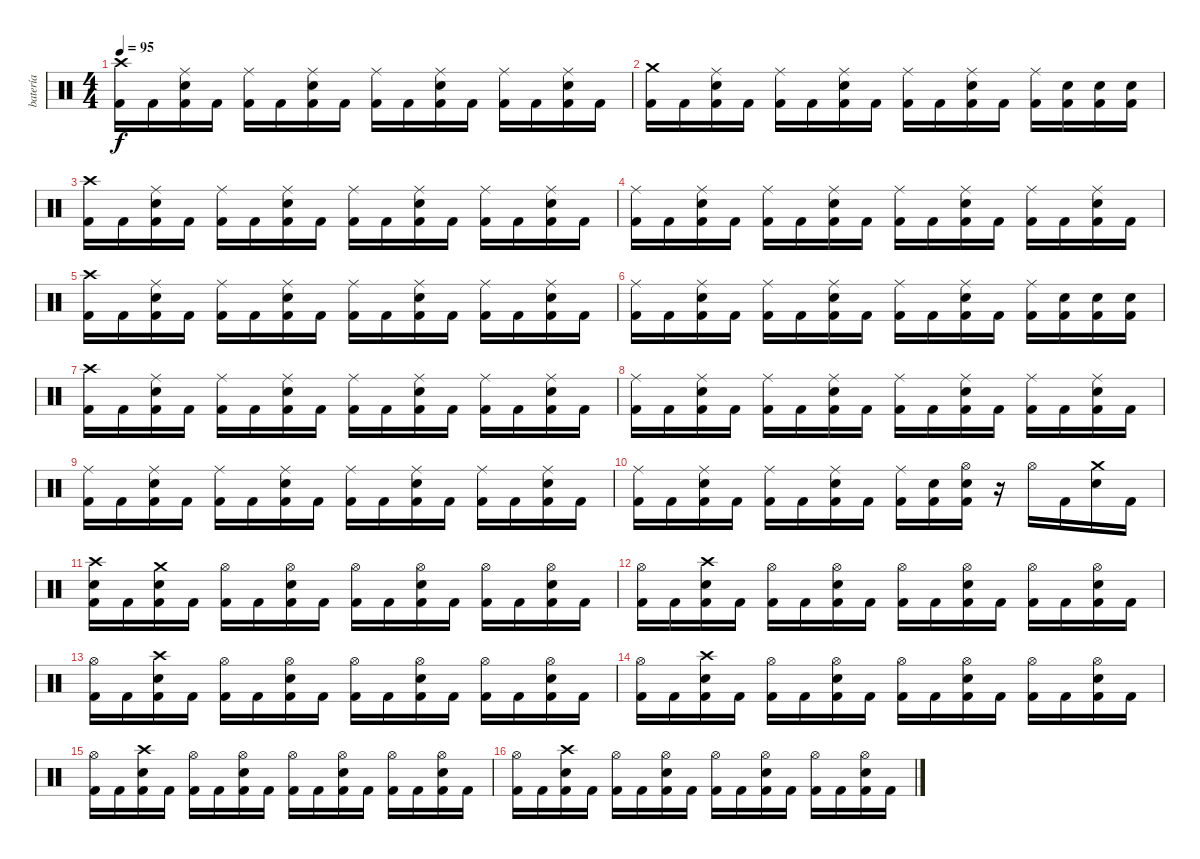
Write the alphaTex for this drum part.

\track ("batería" "batería") {instrument percussion}
\staff {score}
\articulation defaults
\ts (4 4)
\tempo 95
\clef neutral
\ks c
("Crash high (hit)" "Kick (hit) 2").16{dy f} "Kick (hit) 2".16 ("Ride (middle)" "Electric Snare (hit)" "Kick (hit) 2").16 "Kick (hit) 2".16 ("Ride (middle)" "Kick (hit) 2").16 "Kick (hit) 2".16 ("Ride (middle)" "Electric Snare (hit)" "Kick (hit) 2").16 "Kick (hit) 2".16 ("Ride (middle)" "Kick (hit) 2").16 "Kick (hit) 2".16 ("Ride (middle)" "Electric Snare (hit)" "Kick (hit) 2").16 "Kick (hit) 2".16 ("Ride (middle)" "Kick (hit) 2").16 "Kick (hit) 2".16 ("Ride (middle)" "Electric Snare (hit)" "Kick (hit) 2").16 "Kick (hit) 2".16 |
("Crash medium (hit)" "Kick (hit) 2").16 "Kick (hit) 2".16 ("Ride (middle)" "Electric Snare (hit)" "Kick (hit) 2").16 "Kick (hit) 2".16 ("Ride (middle)" "Kick (hit) 2").16 "Kick (hit) 2".16 ("Ride (middle)" "Electric Snare (hit)" "Kick (hit) 2").16 "Kick (hit) 2".16 ("Ride (middle)" "Kick (hit) 2").16 "Kick (hit) 2".16 ("Ride (middle)" "Electric Snare (hit)" "Kick (hit) 2").16 "Kick (hit) 2".16 ("Ride (middle)" "Kick (hit) 2").16 ("Electric Snare (hit)" "Kick (hit) 2").16 ("Electric Snare (hit)" "Kick (hit) 2").16 ("Electric Snare (hit)" "Kick (hit) 2").16 |
("Crash high (hit)" "Kick (hit) 2").16 "Kick (hit) 2".16 ("Ride (middle)" "Electric Snare (hit)" "Kick (hit) 2").16 "Kick (hit) 2".16 ("Ride (middle)" "Kick (hit) 2").16 "Kick (hit) 2".16 ("Ride (middle)" "Electric Snare (hit)" "Kick (hit) 2").16 "Kick (hit) 2".16 ("Ride (middle)" "Kick (hit) 2").16 "Kick (hit) 2".16 ("Ride (middle)" "Electric Snare (hit)" "Kick (hit) 2").16 "Kick (hit) 2".16 ("Ride (middle)" "Kick (hit) 2").16 "Kick (hit) 2".16 ("Ride (middle)" "Electric Snare (hit)" "Kick (hit) 2").16 "Kick (hit) 2".16 |
("Ride (middle)" "Kick (hit) 2").16 "Kick (hit) 2".16 ("Ride (middle)" "Electric Snare (hit)" "Kick (hit) 2").16 "Kick (hit) 2".16 ("Ride (middle)" "Kick (hit) 2").16 "Kick (hit) 2".16 ("Ride (middle)" "Electric Snare (hit)" "Kick (hit) 2").16 "Kick (hit) 2".16 ("Ride (middle)" "Kick (hit) 2").16 "Kick (hit) 2".16 ("Ride (middle)" "Electric Snare (hit)" "Kick (hit) 2").16 "Kick (hit) 2".16 ("Ride (middle)" "Kick (hit) 2").16 "Kick (hit) 2".16 ("Ride (middle)" "Electric Snare (hit)" "Kick (hit) 2").16 "Kick (hit) 2".16 |
("Crash high (hit)" "Kick (hit) 2").16 "Kick (hit) 2".16 ("Ride (middle)" "Electric Snare (hit)" "Kick (hit) 2").16 "Kick (hit) 2".16 ("Ride (middle)" "Kick (hit) 2").16 "Kick (hit) 2".16 ("Ride (middle)" "Electric Snare (hit)" "Kick (hit) 2").16 "Kick (hit) 2".16 ("Ride (middle)" "Kick (hit) 2").16 "Kick (hit) 2".16 ("Ride (middle)" "Electric Snare (hit)" "Kick (hit) 2").16 "Kick (hit) 2".16 ("Ride (middle)" "Kick (hit) 2").16 "Kick (hit) 2".16 ("Ride (middle)" "Electric Snare (hit)" "Kick (hit) 2").16 "Kick (hit) 2".16 |
("Ride (middle)" "Kick (hit) 2").16 "Kick (hit) 2".16 ("Ride (middle)" "Electric Snare (hit)" "Kick (hit) 2").16 "Kick (hit) 2".16 ("Ride (middle)" "Kick (hit) 2").16 "Kick (hit) 2".16 ("Ride (middle)" "Electric Snare (hit)" "Kick (hit) 2").16 "Kick (hit) 2".16 ("Ride (middle)" "Kick (hit) 2").16 "Kick (hit) 2".16 ("Ride (middle)" "Electric Snare (hit)" "Kick (hit) 2").16 "Kick (hit) 2".16 ("Ride (middle)" "Kick (hit) 2").16 ("Electric Snare (hit)" "Kick (hit) 2").16 ("Electric Snare (hit)" "Kick (hit) 2").16 ("Electric Snare (hit)" "Kick (hit) 2").16 |
("Crash high (hit)" "Kick (hit) 2").16 "Kick (hit) 2".16 ("Ride (middle)" "Electric Snare (hit)" "Kick (hit) 2").16 "Kick (hit) 2".16 ("Ride (middle)" "Kick (hit) 2").16 "Kick (hit) 2".16 ("Ride (middle)" "Electric Snare (hit)" "Kick (hit) 2").16 "Kick (hit) 2".16 ("Ride (middle)" "Kick (hit) 2").16 "Kick (hit) 2".16 ("Ride (middle)" "Electric Snare (hit)" "Kick (hit) 2").16 "Kick (hit) 2".16 ("Ride (middle)" "Kick (hit) 2").16 "Kick (hit) 2".16 ("Ride (middle)" "Electric Snare (hit)" "Kick (hit) 2").16 "Kick (hit) 2".16 |
("Ride (middle)" "Kick (hit) 2").16 "Kick (hit) 2".16 ("Ride (middle)" "Electric Snare (hit)" "Kick (hit) 2").16 "Kick (hit) 2".16 ("Ride (middle)" "Kick (hit) 2").16 "Kick (hit) 2".16 ("Ride (middle)" "Electric Snare (hit)" "Kick (hit) 2").16 "Kick (hit) 2".16 ("Ride (middle)" "Kick (hit) 2").16 "Kick (hit) 2".16 ("Ride (middle)" "Electric Snare (hit)" "Kick (hit) 2").16 "Kick (hit) 2".16 ("Ride (middle)" "Kick (hit) 2").16 "Kick (hit) 2".16 ("Ride (middle)" "Electric Snare (hit)" "Kick (hit) 2").16 "Kick (hit) 2".16 |
("Ride (middle)" "Kick (hit) 2").16 "Kick (hit) 2".16 ("Ride (middle)" "Electric Snare (hit)" "Kick (hit) 2").16 "Kick (hit) 2".16 ("Ride (middle)" "Kick (hit) 2").16 "Kick (hit) 2".16 ("Ride (middle)" "Electric Snare (hit)" "Kick (hit) 2").16 "Kick (hit) 2".16 ("Ride (middle)" "Kick (hit) 2").16 "Kick (hit) 2".16 ("Ride (middle)" "Electric Snare (hit)" "Kick (hit) 2").16 "Kick (hit) 2".16 ("Ride (middle)" "Kick (hit) 2").16 "Kick (hit) 2".16 ("Ride (middle)" "Electric Snare (hit)" "Kick (hit) 2").16 "Kick (hit) 2".16 |
("Ride (middle)" "Kick (hit) 2").16 "Kick (hit) 2".16 ("Ride (middle)" "Electric Snare (hit)" "Kick (hit) 2").16 "Kick (hit) 2".16 ("Ride (middle)" "Kick (hit) 2").16 "Kick (hit) 2".16 ("Ride (middle)" "Electric Snare (hit)" "Kick (hit) 2").16 "Kick (hit) 2".16 ("Ride (middle)" "Kick (hit) 2").16 ("Electric Snare (hit)" "Kick (hit) 2").16 ("Hi-Hat (open)" "Electric Snare (hit)" "Kick (hit) 2").16 r.16 "Hi-Hat (open)".16 "Kick (hit) 2".16 ("Crash medium (hit)" "Electric Snare (hit)").16 "Kick (hit) 2".16 |
("Crash high (hit)" "Electric Snare (hit)" "Kick (hit) 2").16 "Kick (hit) 2".16 ("Crash medium (hit)" "Electric Snare (hit)" "Kick (hit) 2").16 "Kick (hit) 2".16 ("Hi-Hat (open)" "Kick (hit) 2").16 "Kick (hit) 2".16 ("Hi-Hat (open)" "Electric Snare (hit)" "Kick (hit) 2").16 "Kick (hit) 2".16 ("Hi-Hat (open)" "Kick (hit) 2").16 "Kick (hit) 2".16 ("Hi-Hat (open)" "Electric Snare (hit)" "Kick (hit) 2").16 "Kick (hit) 2".16 ("Hi-Hat (open)" "Kick (hit) 2").16 "Kick (hit) 2".16 ("Hi-Hat (open)" "Electric Snare (hit)" "Kick (hit) 2").16 "Kick (hit) 2".16 |
("Hi-Hat (open)" "Kick (hit) 2").16 "Kick (hit) 2".16 ("Crash high (hit)" "Electric Snare (hit)" "Kick (hit) 2").16 "Kick (hit) 2".16 ("Hi-Hat (open)" "Kick (hit) 2").16 "Kick (hit) 2".16 ("Hi-Hat (open)" "Electric Snare (hit)" "Kick (hit) 2").16 "Kick (hit) 2".16 ("Hi-Hat (open)" "Kick (hit) 2").16 "Kick (hit) 2".16 ("Hi-Hat (open)" "Electric Snare (hit)" "Kick (hit) 2").16 "Kick (hit) 2".16 ("Hi-Hat (open)" "Kick (hit) 2").16 "Kick (hit) 2".16 ("Hi-Hat (open)" "Electric Snare (hit)" "Kick (hit) 2").16 "Kick (hit) 2".16 |
("Hi-Hat (open)" "Kick (hit) 2").16 "Kick (hit) 2".16 ("Crash high (hit)" "Electric Snare (hit)" "Kick (hit) 2").16 "Kick (hit) 2".16 ("Hi-Hat (open)" "Kick (hit) 2").16 "Kick (hit) 2".16 ("Hi-Hat (open)" "Electric Snare (hit)" "Kick (hit) 2").16 "Kick (hit) 2".16 ("Hi-Hat (open)" "Kick (hit) 2").16 "Kick (hit) 2".16 ("Hi-Hat (open)" "Electric Snare (hit)" "Kick (hit) 2").16 "Kick (hit) 2".16 ("Hi-Hat (open)" "Kick (hit) 2").16 "Kick (hit) 2".16 ("Hi-Hat (open)" "Electric Snare (hit)" "Kick (hit) 2").16 "Kick (hit) 2".16 |
("Hi-Hat (open)" "Kick (hit) 2").16 "Kick (hit) 2".16 ("Crash high (hit)" "Electric Snare (hit)" "Kick (hit) 2").16 "Kick (hit) 2".16 ("Hi-Hat (open)" "Kick (hit) 2").16 "Kick (hit) 2".16 ("Hi-Hat (open)" "Electric Snare (hit)" "Kick (hit) 2").16 "Kick (hit) 2".16 ("Hi-Hat (open)" "Kick (hit) 2").16 "Kick (hit) 2".16 ("Hi-Hat (open)" "Electric Snare (hit)" "Kick (hit) 2").16 "Kick (hit) 2".16 ("Hi-Hat (open)" "Kick (hit) 2").16 "Kick (hit) 2".16 ("Hi-Hat (open)" "Electric Snare (hit)" "Kick (hit) 2").16 "Kick (hit) 2".16 |
("Hi-Hat (open)" "Kick (hit) 2").16 "Kick (hit) 2".16 ("Crash high (hit)" "Electric Snare (hit)" "Kick (hit) 2").16 "Kick (hit) 2".16 ("Hi-Hat (open)" "Kick (hit) 2").16 "Kick (hit) 2".16 ("Hi-Hat (open)" "Electric Snare (hit)" "Kick (hit) 2").16 "Kick (hit) 2".16 ("Hi-Hat (open)" "Kick (hit) 2").16 "Kick (hit) 2".16 ("Hi-Hat (open)" "Electric Snare (hit)" "Kick (hit) 2").16 "Kick (hit) 2".16 ("Hi-Hat (open)" "Kick (hit) 2").16 "Kick (hit) 2".16 ("Hi-Hat (open)" "Electric Snare (hit)" "Kick (hit) 2").16 "Kick (hit) 2".16 |
("Hi-Hat (open)" "Kick (hit) 2").16 "Kick (hit) 2".16 ("Crash high (hit)" "Electric Snare (hit)" "Kick (hit) 2").16 "Kick (hit) 2".16 ("Hi-Hat (open)" "Kick (hit) 2").16 "Kick (hit) 2".16 ("Hi-Hat (open)" "Electric Snare (hit)" "Kick (hit) 2").16 "Kick (hit) 2".16 ("Hi-Hat (open)" "Kick (hit) 2").16 "Kick (hit) 2".16 ("Hi-Hat (open)" "Electric Snare (hit)" "Kick (hit) 2").16 "Kick (hit) 2".16 ("Hi-Hat (open)" "Kick (hit) 2").16 "Kick (hit) 2".16 ("Hi-Hat (open)" "Electric Snare (hit)" "Kick (hit) 2").16 "Kick (hit) 2".16
